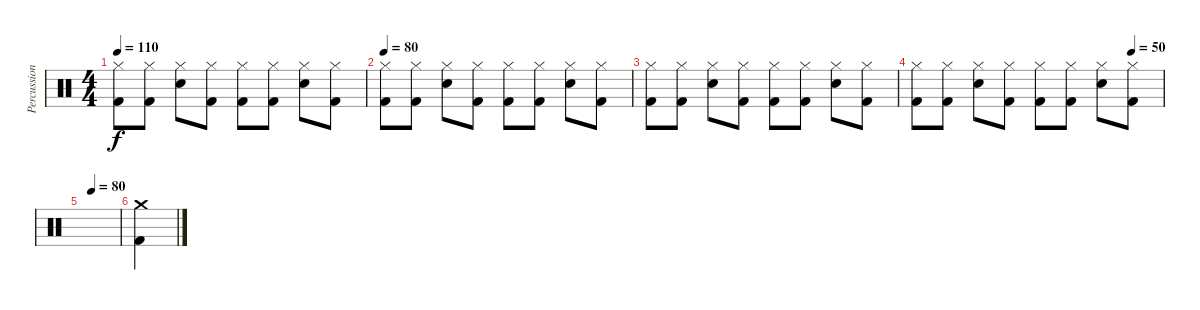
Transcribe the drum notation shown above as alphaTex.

\track ("Percussion" "Percussion") {instrument percussion}
\staff {score}
\articulation defaults
\ts (4 4)
\tempo 110
\clef neutral
\ks c
("Hi-Hat (closed)" "Kick (hit) 2").8{dy f} ("Hi-Hat (closed)" "Kick (hit) 2").8 ("Electric Snare (hit)" "Hi-Hat (closed)").8 ("Hi-Hat (closed)" "Kick (hit) 2").8 ("Hi-Hat (closed)" "Kick (hit) 2").8 ("Hi-Hat (closed)" "Kick (hit) 2").8 ("Electric Snare (hit)" "Hi-Hat (closed)").8 ("Hi-Hat (closed)" "Kick (hit) 2").8 |
\tempo 80
("Hi-Hat (closed)" "Kick (hit) 2").8 ("Hi-Hat (closed)" "Kick (hit) 2").8 ("Electric Snare (hit)" "Hi-Hat (closed)").8 ("Hi-Hat (closed)" "Kick (hit) 2").8 ("Hi-Hat (closed)" "Kick (hit) 2").8 ("Hi-Hat (closed)" "Kick (hit) 2").8 ("Electric Snare (hit)" "Hi-Hat (closed)").8 ("Hi-Hat (closed)" "Kick (hit) 2").8 |
("Hi-Hat (closed)" "Kick (hit) 2").8 ("Hi-Hat (closed)" "Kick (hit) 2").8 ("Electric Snare (hit)" "Hi-Hat (closed)").8 ("Hi-Hat (closed)" "Kick (hit) 2").8 ("Hi-Hat (closed)" "Kick (hit) 2").8 ("Hi-Hat (closed)" "Kick (hit) 2").8 ("Electric Snare (hit)" "Hi-Hat (closed)").8 ("Hi-Hat (closed)" "Kick (hit) 2").8 |
\tempo (50 0.875)
("Hi-Hat (closed)" "Kick (hit) 2").8 ("Hi-Hat (closed)" "Kick (hit) 2").8 ("Electric Snare (hit)" "Hi-Hat (closed)").8 ("Hi-Hat (closed)" "Kick (hit) 2").8 ("Hi-Hat (closed)" "Kick (hit) 2").8 ("Hi-Hat (closed)" "Kick (hit) 2").8 ("Electric Snare (hit)" "Hi-Hat (closed)").8 ("Hi-Hat (closed)" "Kick (hit) 2").8 |
\tempo (80 0.25)
|
("Kick (hit) 2" "Crash medium (hit)").4
